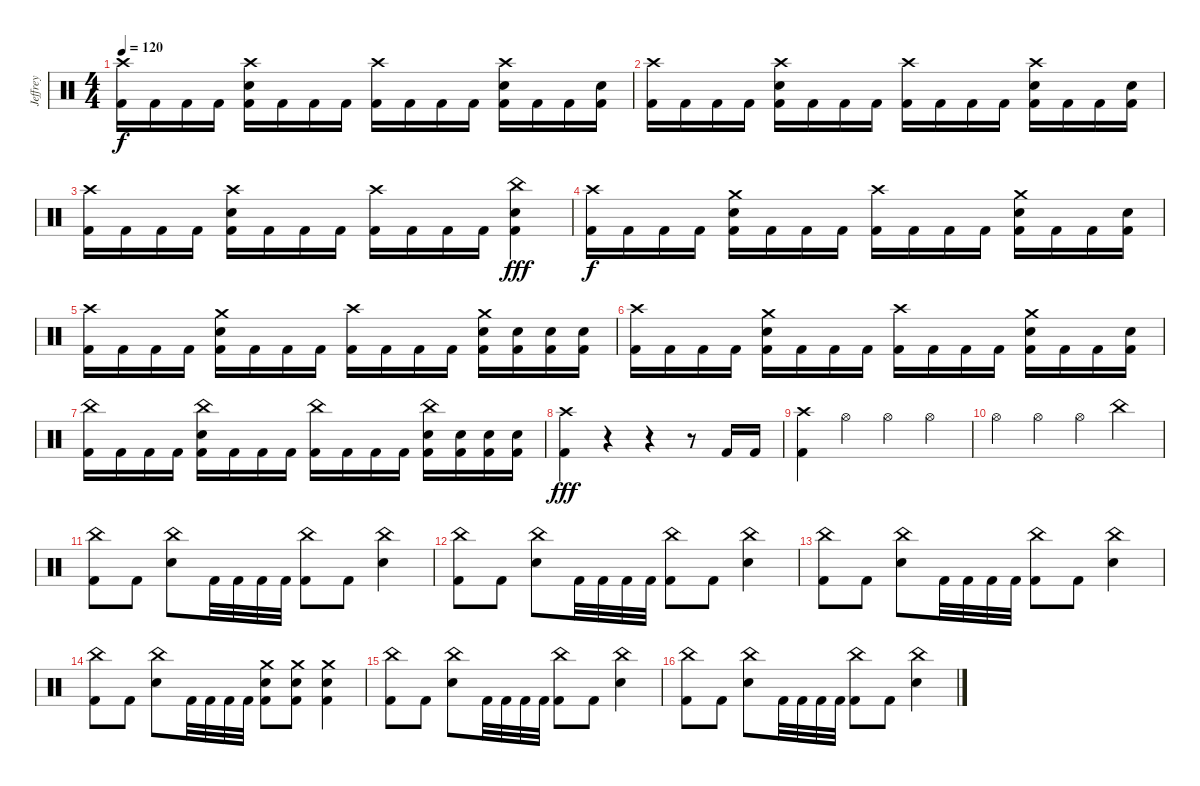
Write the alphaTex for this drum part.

\track ("Jeffrey" "Jeffrey") {instrument percussion}
\staff {score}
\articulation defaults
\ts (4 4)
\tempo 120
\clef neutral
\ks c
("Crash high (hit)" "Kick (hit) 2").16{dy f} "Kick (hit) 2".16 "Kick (hit) 2".16 "Kick (hit) 2".16 ("Crash high (hit)" "Electric Snare (hit)" "Kick (hit) 2").16 "Kick (hit) 2".16 "Kick (hit) 2".16 "Kick (hit) 2".16 ("Crash high (hit)" "Kick (hit) 2").16 "Kick (hit) 2".16 "Kick (hit) 2".16 "Kick (hit) 2".16 ("Crash high (hit)" "Electric Snare (hit)" "Kick (hit) 2").16 "Kick (hit) 2".16 "Kick (hit) 2".16 ("Electric Snare (hit)" "Kick (hit) 2").16 |
("Crash high (hit)" "Kick (hit) 2").16 "Kick (hit) 2".16 "Kick (hit) 2".16 "Kick (hit) 2".16 ("Crash high (hit)" "Electric Snare (hit)" "Kick (hit) 2").16 "Kick (hit) 2".16 "Kick (hit) 2".16 "Kick (hit) 2".16 ("Crash high (hit)" "Kick (hit) 2").16 "Kick (hit) 2".16 "Kick (hit) 2".16 "Kick (hit) 2".16 ("Crash high (hit)" "Electric Snare (hit)" "Kick (hit) 2").16 "Kick (hit) 2".16 "Kick (hit) 2".16 ("Electric Snare (hit)" "Kick (hit) 2").16 |
("Crash high (hit)" "Kick (hit) 2").16 "Kick (hit) 2".16 "Kick (hit) 2".16 "Kick (hit) 2".16 ("Crash high (hit)" "Electric Snare (hit)" "Kick (hit) 2").16 "Kick (hit) 2".16 "Kick (hit) 2".16 "Kick (hit) 2".16 ("Crash high (hit)" "Kick (hit) 2").16 "Kick (hit) 2".16 "Kick (hit) 2".16 "Kick (hit) 2".16 ("China (hit)" "Electric Snare (hit)" "Kick (hit) 2").4{dy fff} |
("Crash high (hit)" "Kick (hit) 2").16{dy f} "Kick (hit) 2".16 "Kick (hit) 2".16 "Kick (hit) 2".16 ("Crash medium (hit)" "Electric Snare (hit)" "Kick (hit) 2").16 "Kick (hit) 2".16 "Kick (hit) 2".16 "Kick (hit) 2".16 ("Crash high (hit)" "Kick (hit) 2").16 "Kick (hit) 2".16 "Kick (hit) 2".16 "Kick (hit) 2".16 ("Crash medium (hit)" "Electric Snare (hit)" "Kick (hit) 2").16 "Kick (hit) 2".16 "Kick (hit) 2".16 ("Electric Snare (hit)" "Kick (hit) 2").16 |
("Crash high (hit)" "Kick (hit) 2").16 "Kick (hit) 2".16 "Kick (hit) 2".16 "Kick (hit) 2".16 ("Crash medium (hit)" "Electric Snare (hit)" "Kick (hit) 2").16 "Kick (hit) 2".16 "Kick (hit) 2".16 "Kick (hit) 2".16 ("Crash high (hit)" "Kick (hit) 2").16 "Kick (hit) 2".16 "Kick (hit) 2".16 "Kick (hit) 2".16 ("Crash medium (hit)" "Electric Snare (hit)" "Kick (hit) 2").16 ("Electric Snare (hit)" "Kick (hit) 2").16 ("Electric Snare (hit)" "Kick (hit) 2").16 ("Electric Snare (hit)" "Kick (hit) 2").16 |
("Crash high (hit)" "Kick (hit) 2").16 "Kick (hit) 2".16 "Kick (hit) 2".16 "Kick (hit) 2".16 ("Crash medium (hit)" "Electric Snare (hit)" "Kick (hit) 2").16 "Kick (hit) 2".16 "Kick (hit) 2".16 "Kick (hit) 2".16 ("Crash high (hit)" "Kick (hit) 2").16 "Kick (hit) 2".16 "Kick (hit) 2".16 "Kick (hit) 2".16 ("Crash medium (hit)" "Electric Snare (hit)" "Kick (hit) 2").16 "Kick (hit) 2".16 "Kick (hit) 2".16 ("Electric Snare (hit)" "Kick (hit) 2").16 |
("China (hit)" "Kick (hit) 2").16 "Kick (hit) 2".16 "Kick (hit) 2".16 "Kick (hit) 2".16 ("China (hit)" "Electric Snare (hit)" "Kick (hit) 2").16 "Kick (hit) 2".16 "Kick (hit) 2".16 "Kick (hit) 2".16 ("China (hit)" "Kick (hit) 2").16 "Kick (hit) 2".16 "Kick (hit) 2".16 "Kick (hit) 2".16 ("China (hit)" "Electric Snare (hit)" "Kick (hit) 2").16 ("Electric Snare (hit)" "Kick (hit) 2").16 ("Electric Snare (hit)" "Kick (hit) 2").16 ("Electric Snare (hit)" "Kick (hit) 2").16 |
("Crash high (hit)" "Kick (hit) 2").4{dy fff} r.4 r.4 r.8 "Kick (hit) 2".16 "Kick (hit) 2".16 |
("Crash high (hit)" "Kick (hit) 2").4 "Hi-Hat (open)".4 "Hi-Hat (open)".4 "Hi-Hat (open)".4 |
"Hi-Hat (open)".4 "Hi-Hat (open)".4 "Hi-Hat (open)".4 "China (hit)".4 |
("China (hit)" "Kick (hit) 2").8 "Kick (hit) 2".8 ("China (hit)" "Electric Snare (hit)").8 "Kick (hit) 2".32 "Kick (hit) 2".32 "Kick (hit) 2".32 "Kick (hit) 2".32 ("China (hit)" "Kick (hit) 2").8 "Kick (hit) 2".8 ("China (hit)" "Electric Snare (hit)").4 |
("China (hit)" "Kick (hit) 2").8 "Kick (hit) 2".8 ("China (hit)" "Electric Snare (hit)").8 "Kick (hit) 2".32 "Kick (hit) 2".32 "Kick (hit) 2".32 "Kick (hit) 2".32 ("China (hit)" "Kick (hit) 2").8 "Kick (hit) 2".8 ("China (hit)" "Electric Snare (hit)").4 |
("China (hit)" "Kick (hit) 2").8 "Kick (hit) 2".8 ("China (hit)" "Electric Snare (hit)").8 "Kick (hit) 2".32 "Kick (hit) 2".32 "Kick (hit) 2".32 "Kick (hit) 2".32 ("China (hit)" "Kick (hit) 2").8 "Kick (hit) 2".8 ("China (hit)" "Electric Snare (hit)").4 |
("China (hit)" "Kick (hit) 2").8 "Kick (hit) 2".8 ("China (hit)" "Electric Snare (hit)").8 "Kick (hit) 2".32 "Kick (hit) 2".32 "Kick (hit) 2".32 "Kick (hit) 2".32 ("Crash medium (hit)" "Electric Snare (hit)" "Kick (hit) 2").8 ("Crash medium (hit)" "Electric Snare (hit)" "Kick (hit) 2").8 ("Crash medium (hit)" "Electric Snare (hit)" "Kick (hit) 2").4 |
("China (hit)" "Kick (hit) 2").8 "Kick (hit) 2".8 ("China (hit)" "Electric Snare (hit)").8 "Kick (hit) 2".32 "Kick (hit) 2".32 "Kick (hit) 2".32 "Kick (hit) 2".32 ("China (hit)" "Kick (hit) 2").8 "Kick (hit) 2".8 ("China (hit)" "Electric Snare (hit)").4 |
("China (hit)" "Kick (hit) 2").8 "Kick (hit) 2".8 ("China (hit)" "Electric Snare (hit)").8 "Kick (hit) 2".32 "Kick (hit) 2".32 "Kick (hit) 2".32 "Kick (hit) 2".32 ("China (hit)" "Kick (hit) 2").8 "Kick (hit) 2".8 ("China (hit)" "Electric Snare (hit)").4
